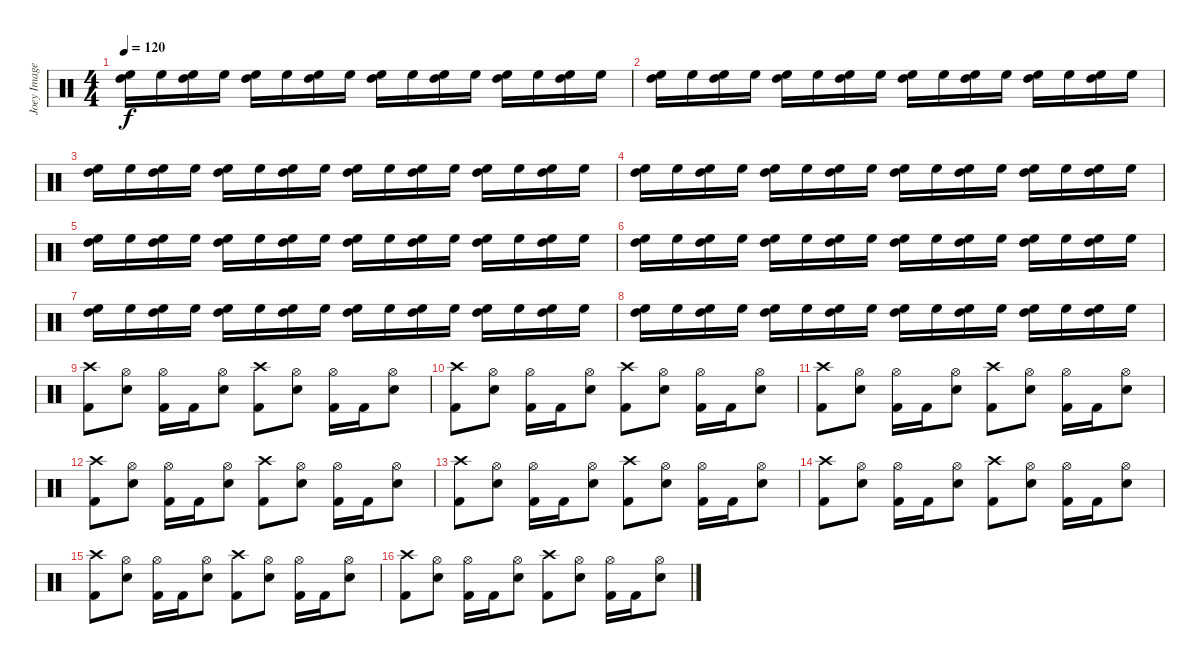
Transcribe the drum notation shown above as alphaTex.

\track ("Joey Image" "Joey Image") {instrument percussion}
\staff {score}
\articulation defaults
\ts (4 4)
\tempo 120
\clef neutral
\ks c
("High Tom (hit)" "High Floor Tom (hit)").16{dy f} "High Floor Tom (hit)".16 ("High Tom (hit)" "High Floor Tom (hit)").16 "High Floor Tom (hit)".16 ("High Tom (hit)" "High Floor Tom (hit)").16 "High Floor Tom (hit)".16 ("High Tom (hit)" "High Floor Tom (hit)").16 "High Floor Tom (hit)".16 ("High Tom (hit)" "High Floor Tom (hit)").16 "High Floor Tom (hit)".16 ("High Tom (hit)" "High Floor Tom (hit)").16 "High Floor Tom (hit)".16 ("High Tom (hit)" "High Floor Tom (hit)").16 "High Floor Tom (hit)".16 ("High Tom (hit)" "High Floor Tom (hit)").16 "High Floor Tom (hit)".16 |
("High Tom (hit)" "High Floor Tom (hit)").16 "High Floor Tom (hit)".16 ("High Tom (hit)" "High Floor Tom (hit)").16 "High Floor Tom (hit)".16 ("High Tom (hit)" "High Floor Tom (hit)").16 "High Floor Tom (hit)".16 ("High Tom (hit)" "High Floor Tom (hit)").16 "High Floor Tom (hit)".16 ("High Tom (hit)" "High Floor Tom (hit)").16 "High Floor Tom (hit)".16 ("High Tom (hit)" "High Floor Tom (hit)").16 "High Floor Tom (hit)".16 ("High Tom (hit)" "High Floor Tom (hit)").16 "High Floor Tom (hit)".16 ("High Tom (hit)" "High Floor Tom (hit)").16 "High Floor Tom (hit)".16 |
("High Tom (hit)" "High Floor Tom (hit)").16 "High Floor Tom (hit)".16 ("High Tom (hit)" "High Floor Tom (hit)").16 "High Floor Tom (hit)".16 ("High Tom (hit)" "High Floor Tom (hit)").16 "High Floor Tom (hit)".16 ("High Tom (hit)" "High Floor Tom (hit)").16 "High Floor Tom (hit)".16 ("High Tom (hit)" "High Floor Tom (hit)").16 "High Floor Tom (hit)".16 ("High Tom (hit)" "High Floor Tom (hit)").16 "High Floor Tom (hit)".16 ("High Tom (hit)" "High Floor Tom (hit)").16 "High Floor Tom (hit)".16 ("High Tom (hit)" "High Floor Tom (hit)").16 "High Floor Tom (hit)".16 |
("High Tom (hit)" "High Floor Tom (hit)").16 "High Floor Tom (hit)".16 ("High Tom (hit)" "High Floor Tom (hit)").16 "High Floor Tom (hit)".16 ("High Tom (hit)" "High Floor Tom (hit)").16 "High Floor Tom (hit)".16 ("High Tom (hit)" "High Floor Tom (hit)").16 "High Floor Tom (hit)".16 ("High Tom (hit)" "High Floor Tom (hit)").16 "High Floor Tom (hit)".16 ("High Tom (hit)" "High Floor Tom (hit)").16 "High Floor Tom (hit)".16 ("High Tom (hit)" "High Floor Tom (hit)").16 "High Floor Tom (hit)".16 ("High Tom (hit)" "High Floor Tom (hit)").16 "High Floor Tom (hit)".16 |
("High Tom (hit)" "High Floor Tom (hit)").16 "High Floor Tom (hit)".16 ("High Tom (hit)" "High Floor Tom (hit)").16 "High Floor Tom (hit)".16 ("High Tom (hit)" "High Floor Tom (hit)").16 "High Floor Tom (hit)".16 ("High Tom (hit)" "High Floor Tom (hit)").16 "High Floor Tom (hit)".16 ("High Tom (hit)" "High Floor Tom (hit)").16 "High Floor Tom (hit)".16 ("High Tom (hit)" "High Floor Tom (hit)").16 "High Floor Tom (hit)".16 ("High Tom (hit)" "High Floor Tom (hit)").16 "High Floor Tom (hit)".16 ("High Tom (hit)" "High Floor Tom (hit)").16 "High Floor Tom (hit)".16 |
("High Tom (hit)" "High Floor Tom (hit)").16 "High Floor Tom (hit)".16 ("High Tom (hit)" "High Floor Tom (hit)").16 "High Floor Tom (hit)".16 ("High Tom (hit)" "High Floor Tom (hit)").16 "High Floor Tom (hit)".16 ("High Tom (hit)" "High Floor Tom (hit)").16 "High Floor Tom (hit)".16 ("High Tom (hit)" "High Floor Tom (hit)").16 "High Floor Tom (hit)".16 ("High Tom (hit)" "High Floor Tom (hit)").16 "High Floor Tom (hit)".16 ("High Tom (hit)" "High Floor Tom (hit)").16 "High Floor Tom (hit)".16 ("High Tom (hit)" "High Floor Tom (hit)").16 "High Floor Tom (hit)".16 |
("High Tom (hit)" "High Floor Tom (hit)").16 "High Floor Tom (hit)".16 ("High Tom (hit)" "High Floor Tom (hit)").16 "High Floor Tom (hit)".16 ("High Tom (hit)" "High Floor Tom (hit)").16 "High Floor Tom (hit)".16 ("High Tom (hit)" "High Floor Tom (hit)").16 "High Floor Tom (hit)".16 ("High Tom (hit)" "High Floor Tom (hit)").16 "High Floor Tom (hit)".16 ("High Tom (hit)" "High Floor Tom (hit)").16 "High Floor Tom (hit)".16 ("High Tom (hit)" "High Floor Tom (hit)").16 "High Floor Tom (hit)".16 ("High Tom (hit)" "High Floor Tom (hit)").16 "High Floor Tom (hit)".16 |
("High Tom (hit)" "High Floor Tom (hit)").16 "High Floor Tom (hit)".16 ("High Tom (hit)" "High Floor Tom (hit)").16 "High Floor Tom (hit)".16 ("High Tom (hit)" "High Floor Tom (hit)").16 "High Floor Tom (hit)".16 ("High Tom (hit)" "High Floor Tom (hit)").16 "High Floor Tom (hit)".16 ("High Tom (hit)" "High Floor Tom (hit)").16 "High Floor Tom (hit)".16 ("High Tom (hit)" "High Floor Tom (hit)").16 "High Floor Tom (hit)".16 ("High Tom (hit)" "High Floor Tom (hit)").16 "High Floor Tom (hit)".16 ("High Tom (hit)" "High Floor Tom (hit)").16 "High Floor Tom (hit)".16 |
("Crash high (hit)" "Kick (hit) 2").8 ("Hi-Hat (open)" "Snare (hit) 2").8 ("Hi-Hat (open)" "Kick (hit) 2").16 "Kick (hit) 2".16 ("Hi-Hat (open)" "Snare (hit) 2").8 ("Crash high (hit)" "Kick (hit) 2").8 ("Hi-Hat (open)" "Snare (hit) 2").8 ("Hi-Hat (open)" "Kick (hit) 2").16 "Kick (hit) 2".16 ("Hi-Hat (open)" "Snare (hit) 2").8 |
("Crash high (hit)" "Kick (hit) 2").8 ("Hi-Hat (open)" "Snare (hit) 2").8 ("Hi-Hat (open)" "Kick (hit) 2").16 "Kick (hit) 2".16 ("Hi-Hat (open)" "Snare (hit) 2").8 ("Crash high (hit)" "Kick (hit) 2").8 ("Hi-Hat (open)" "Snare (hit) 2").8 ("Hi-Hat (open)" "Kick (hit) 2").16 "Kick (hit) 2".16 ("Hi-Hat (open)" "Snare (hit) 2").8 |
("Crash high (hit)" "Kick (hit) 2").8 ("Hi-Hat (open)" "Snare (hit) 2").8 ("Hi-Hat (open)" "Kick (hit) 2").16 "Kick (hit) 2".16 ("Hi-Hat (open)" "Snare (hit) 2").8 ("Crash high (hit)" "Kick (hit) 2").8 ("Hi-Hat (open)" "Snare (hit) 2").8 ("Hi-Hat (open)" "Kick (hit) 2").16 "Kick (hit) 2".16 ("Hi-Hat (open)" "Snare (hit) 2").8 |
("Crash high (hit)" "Kick (hit) 2").8 ("Hi-Hat (open)" "Snare (hit) 2").8 ("Hi-Hat (open)" "Kick (hit) 2").16 "Kick (hit) 2".16 ("Hi-Hat (open)" "Snare (hit) 2").8 ("Crash high (hit)" "Kick (hit) 2").8 ("Hi-Hat (open)" "Snare (hit) 2").8 ("Hi-Hat (open)" "Kick (hit) 2").16 "Kick (hit) 2".16 ("Hi-Hat (open)" "Snare (hit) 2").8 |
("Crash high (hit)" "Kick (hit) 2").8 ("Hi-Hat (open)" "Snare (hit) 2").8 ("Hi-Hat (open)" "Kick (hit) 2").16 "Kick (hit) 2".16 ("Hi-Hat (open)" "Snare (hit) 2").8 ("Crash high (hit)" "Kick (hit) 2").8 ("Hi-Hat (open)" "Snare (hit) 2").8 ("Hi-Hat (open)" "Kick (hit) 2").16 "Kick (hit) 2".16 ("Hi-Hat (open)" "Snare (hit) 2").8 |
("Crash high (hit)" "Kick (hit) 2").8 ("Hi-Hat (open)" "Snare (hit) 2").8 ("Hi-Hat (open)" "Kick (hit) 2").16 "Kick (hit) 2".16 ("Hi-Hat (open)" "Snare (hit) 2").8 ("Crash high (hit)" "Kick (hit) 2").8 ("Hi-Hat (open)" "Snare (hit) 2").8 ("Hi-Hat (open)" "Kick (hit) 2").16 "Kick (hit) 2".16 ("Hi-Hat (open)" "Snare (hit) 2").8 |
("Crash high (hit)" "Kick (hit) 2").8 ("Hi-Hat (open)" "Snare (hit) 2").8 ("Hi-Hat (open)" "Kick (hit) 2").16 "Kick (hit) 2".16 ("Hi-Hat (open)" "Snare (hit) 2").8 ("Crash high (hit)" "Kick (hit) 2").8 ("Hi-Hat (open)" "Snare (hit) 2").8 ("Hi-Hat (open)" "Kick (hit) 2").16 "Kick (hit) 2".16 ("Hi-Hat (open)" "Snare (hit) 2").8 |
("Crash high (hit)" "Kick (hit) 2").8 ("Hi-Hat (open)" "Snare (hit) 2").8 ("Hi-Hat (open)" "Kick (hit) 2").16 "Kick (hit) 2".16 ("Hi-Hat (open)" "Snare (hit) 2").8 ("Crash high (hit)" "Kick (hit) 2").8 ("Hi-Hat (open)" "Snare (hit) 2").8 ("Hi-Hat (open)" "Kick (hit) 2").16 "Kick (hit) 2".16 ("Hi-Hat (open)" "Snare (hit) 2").8
